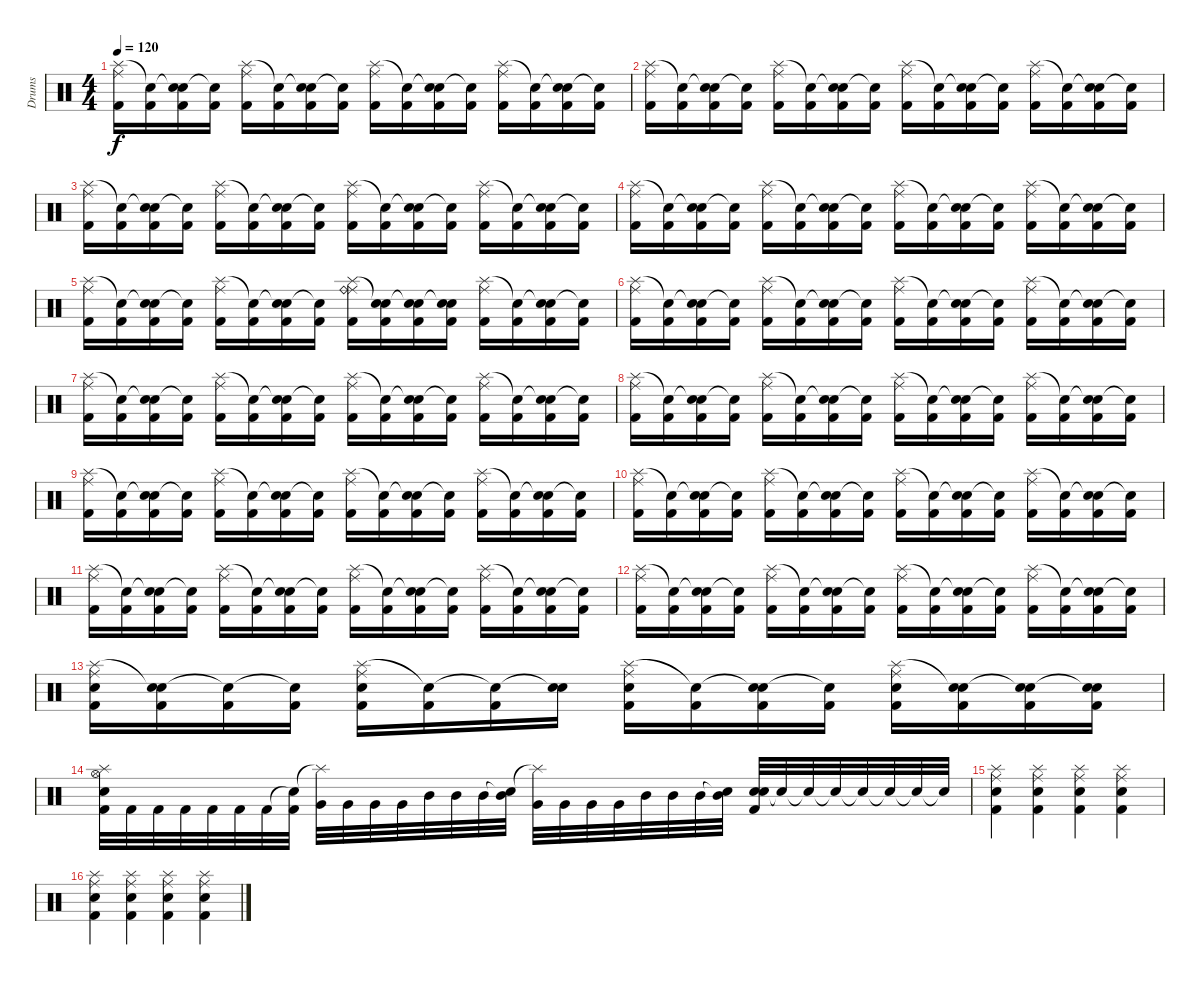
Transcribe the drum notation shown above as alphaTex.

\track ("Drums" "Drums") {instrument percussion}
\staff {score}
\articulation defaults
\ts (4 4)
\tempo 120
\clef neutral
\ks c
("Splash (hit)" "Ride (middle)" "Kick (hit) 2").16{dy f} ("Snare (hit)"{t} "Kick (hit) 2").16 ("Snare (hit)"{t} "Electric Snare (hit)" "Kick (hit) 2").16 ("Snare (hit)"{t} "Kick (hit) 2").16 ("Splash (hit)" "Ride (middle)" "Kick (hit) 2").16 ("Snare (hit)"{t} "Kick (hit) 2").16 ("Snare (hit)"{t} "Electric Snare (hit)" "Kick (hit) 2").16 ("Snare (hit)"{t} "Kick (hit) 2").16 ("Splash (hit)" "Ride (middle)" "Kick (hit) 2").16 ("Snare (hit)"{t} "Kick (hit) 2").16 ("Snare (hit)"{t} "Electric Snare (hit)" "Kick (hit) 2").16 ("Snare (hit)"{t} "Kick (hit) 2").16 ("Splash (hit)" "Ride (middle)" "Kick (hit) 2").16 ("Snare (hit)"{t} "Kick (hit) 2").16 ("Snare (hit)"{t} "Electric Snare (hit)" "Kick (hit) 2").16 ("Snare (hit)"{t} "Kick (hit) 2").16 |
("Splash (hit)" "Ride (middle)" "Kick (hit) 2").16 ("Snare (hit)"{t} "Kick (hit) 2").16 ("Snare (hit)"{t} "Electric Snare (hit)" "Kick (hit) 2").16 ("Snare (hit)"{t} "Kick (hit) 2").16 ("Splash (hit)" "Ride (middle)" "Kick (hit) 2").16 ("Snare (hit)"{t} "Kick (hit) 2").16 ("Snare (hit)"{t} "Electric Snare (hit)" "Kick (hit) 2").16 ("Snare (hit)"{t} "Kick (hit) 2").16 ("Splash (hit)" "Ride (middle)" "Kick (hit) 2").16 ("Snare (hit)"{t} "Kick (hit) 2").16 ("Snare (hit)"{t} "Electric Snare (hit)" "Kick (hit) 2").16 ("Snare (hit)"{t} "Kick (hit) 2").16 ("Splash (hit)" "Ride (middle)" "Kick (hit) 2").16 ("Snare (hit)"{t} "Kick (hit) 2").16 ("Snare (hit)"{t} "Electric Snare (hit)" "Kick (hit) 2").16 ("Snare (hit)"{t} "Kick (hit) 2").16 |
("Splash (hit)" "Ride (middle)" "Kick (hit) 2").16 ("Snare (hit)"{t} "Kick (hit) 2").16 ("Snare (hit)"{t} "Electric Snare (hit)" "Kick (hit) 2").16 ("Snare (hit)"{t} "Kick (hit) 2").16 ("Splash (hit)" "Ride (middle)" "Kick (hit) 2").16 ("Snare (hit)"{t} "Kick (hit) 2").16 ("Snare (hit)"{t} "Electric Snare (hit)" "Kick (hit) 2").16 ("Snare (hit)"{t} "Kick (hit) 2").16 ("Splash (hit)" "Ride (middle)" "Kick (hit) 2").16 ("Snare (hit)"{t} "Kick (hit) 2").16 ("Snare (hit)"{t} "Electric Snare (hit)" "Kick (hit) 2").16 ("Snare (hit)"{t} "Kick (hit) 2").16 ("Splash (hit)" "Ride (middle)" "Kick (hit) 2").16 ("Snare (hit)"{t} "Kick (hit) 2").16 ("Snare (hit)"{t} "Electric Snare (hit)" "Kick (hit) 2").16 ("Snare (hit)"{t} "Kick (hit) 2").16 |
("Splash (hit)" "Ride (middle)" "Kick (hit) 2").16 ("Snare (hit)"{t} "Kick (hit) 2").16 ("Snare (hit)"{t} "Electric Snare (hit)" "Kick (hit) 2").16 ("Snare (hit)"{t} "Kick (hit) 2").16 ("Splash (hit)" "Ride (middle)" "Kick (hit) 2").16 ("Snare (hit)"{t} "Kick (hit) 2").16 ("Snare (hit)"{t} "Electric Snare (hit)" "Kick (hit) 2").16 ("Snare (hit)"{t} "Kick (hit) 2").16 ("Splash (hit)" "Ride (middle)" "Kick (hit) 2").16 ("Snare (hit)"{t} "Kick (hit) 2").16 ("Snare (hit)"{t} "Electric Snare (hit)" "Kick (hit) 2").16 ("Snare (hit)"{t} "Kick (hit) 2").16 ("Splash (hit)" "Ride (middle)" "Kick (hit) 2").16 ("Snare (hit)"{t} "Kick (hit) 2").16 ("Snare (hit)"{t} "Electric Snare (hit)" "Kick (hit) 2").16 ("Snare (hit)"{t} "Kick (hit) 2").16 |
("Splash (hit)" "Ride (middle)" "Kick (hit) 2").16 ("Snare (hit)"{t} "Kick (hit) 2").16 ("Snare (hit)"{t} "Electric Snare (hit)" "Kick (hit) 2").16 ("Snare (hit)"{t} "Kick (hit) 2").16 ("Splash (hit)" "Ride (middle)" "Kick (hit) 2").16 ("Snare (hit)"{t} "Kick (hit) 2").16 ("Snare (hit)"{t} "Electric Snare (hit)" "Kick (hit) 2").16 ("Snare (hit)"{t} "Kick (hit) 2").16 ("Splash (hit)" "Ride (middle)" "Kick (hit) 2" "Ride (bell)").16 ("Snare (hit)"{t} "Electric Snare (hit)" "Kick (hit) 2").16 ("Snare (hit)"{t} "Electric Snare (hit)" "Kick (hit) 2").16 ("Snare (hit)"{t} "Electric Snare (hit)" "Kick (hit) 2").16 ("Splash (hit)" "Ride (middle)" "Kick (hit) 2").16 ("Snare (hit)"{t} "Kick (hit) 2").16 ("Snare (hit)"{t} "Electric Snare (hit)" "Kick (hit) 2").16 ("Snare (hit)"{t} "Kick (hit) 2").16 |
("Splash (hit)" "Ride (middle)" "Kick (hit) 2").16 ("Snare (hit)"{t} "Kick (hit) 2").16 ("Snare (hit)"{t} "Electric Snare (hit)" "Kick (hit) 2").16 ("Snare (hit)"{t} "Kick (hit) 2").16 ("Splash (hit)" "Ride (middle)" "Kick (hit) 2").16 ("Snare (hit)"{t} "Kick (hit) 2").16 ("Snare (hit)"{t} "Electric Snare (hit)" "Kick (hit) 2").16 ("Snare (hit)"{t} "Kick (hit) 2").16 ("Splash (hit)" "Ride (middle)" "Kick (hit) 2").16 ("Snare (hit)"{t} "Kick (hit) 2").16 ("Snare (hit)"{t} "Electric Snare (hit)" "Kick (hit) 2").16 ("Snare (hit)"{t} "Kick (hit) 2").16 ("Splash (hit)" "Ride (middle)" "Kick (hit) 2").16 ("Snare (hit)"{t} "Kick (hit) 2").16 ("Snare (hit)"{t} "Electric Snare (hit)" "Kick (hit) 2").16 ("Snare (hit)"{t} "Kick (hit) 2").16 |
("Splash (hit)" "Ride (middle)" "Kick (hit) 2").16 ("Snare (hit)"{t} "Kick (hit) 2").16 ("Snare (hit)"{t} "Electric Snare (hit)" "Kick (hit) 2").16 ("Snare (hit)"{t} "Kick (hit) 2").16 ("Splash (hit)" "Ride (middle)" "Kick (hit) 2").16 ("Snare (hit)"{t} "Kick (hit) 2").16 ("Snare (hit)"{t} "Electric Snare (hit)" "Kick (hit) 2").16 ("Snare (hit)"{t} "Kick (hit) 2").16 ("Splash (hit)" "Ride (middle)" "Kick (hit) 2").16 ("Snare (hit)"{t} "Kick (hit) 2").16 ("Snare (hit)"{t} "Electric Snare (hit)" "Kick (hit) 2").16 ("Snare (hit)"{t} "Kick (hit) 2").16 ("Splash (hit)" "Ride (middle)" "Kick (hit) 2").16 ("Snare (hit)"{t} "Kick (hit) 2").16 ("Snare (hit)"{t} "Electric Snare (hit)" "Kick (hit) 2").16 ("Snare (hit)"{t} "Kick (hit) 2").16 |
("Splash (hit)" "Ride (middle)" "Kick (hit) 2").16 ("Snare (hit)"{t} "Kick (hit) 2").16 ("Snare (hit)"{t} "Electric Snare (hit)" "Kick (hit) 2").16 ("Snare (hit)"{t} "Kick (hit) 2").16 ("Splash (hit)" "Ride (middle)" "Kick (hit) 2").16 ("Snare (hit)"{t} "Kick (hit) 2").16 ("Snare (hit)"{t} "Electric Snare (hit)" "Kick (hit) 2").16 ("Snare (hit)"{t} "Kick (hit) 2").16 ("Splash (hit)" "Ride (middle)" "Kick (hit) 2").16 ("Snare (hit)"{t} "Kick (hit) 2").16 ("Snare (hit)"{t} "Electric Snare (hit)" "Kick (hit) 2").16 ("Snare (hit)"{t} "Kick (hit) 2").16 ("Splash (hit)" "Ride (middle)" "Kick (hit) 2").16 ("Snare (hit)"{t} "Kick (hit) 2").16 ("Snare (hit)"{t} "Electric Snare (hit)" "Kick (hit) 2").16 ("Snare (hit)"{t} "Kick (hit) 2").16 |
("Splash (hit)" "Ride (middle)" "Kick (hit) 2").16 ("Snare (hit)"{t} "Kick (hit) 2").16 ("Snare (hit)"{t} "Electric Snare (hit)" "Kick (hit) 2").16 ("Snare (hit)"{t} "Kick (hit) 2").16 ("Splash (hit)" "Ride (middle)" "Kick (hit) 2").16 ("Snare (hit)"{t} "Kick (hit) 2").16 ("Snare (hit)"{t} "Electric Snare (hit)" "Kick (hit) 2").16 ("Snare (hit)"{t} "Kick (hit) 2").16 ("Splash (hit)" "Ride (middle)" "Kick (hit) 2").16 ("Snare (hit)"{t} "Kick (hit) 2").16 ("Snare (hit)"{t} "Electric Snare (hit)" "Kick (hit) 2").16 ("Snare (hit)"{t} "Kick (hit) 2").16 ("Splash (hit)" "Ride (middle)" "Kick (hit) 2").16 ("Snare (hit)"{t} "Kick (hit) 2").16 ("Snare (hit)"{t} "Electric Snare (hit)" "Kick (hit) 2").16 ("Snare (hit)"{t} "Kick (hit) 2").16 |
("Splash (hit)" "Ride (middle)" "Kick (hit) 2").16 ("Snare (hit)"{t} "Kick (hit) 2").16 ("Snare (hit)"{t} "Electric Snare (hit)" "Kick (hit) 2").16 ("Snare (hit)"{t} "Kick (hit) 2").16 ("Splash (hit)" "Ride (middle)" "Kick (hit) 2").16 ("Snare (hit)"{t} "Kick (hit) 2").16 ("Snare (hit)"{t} "Electric Snare (hit)" "Kick (hit) 2").16 ("Snare (hit)"{t} "Kick (hit) 2").16 ("Splash (hit)" "Ride (middle)" "Kick (hit) 2").16 ("Snare (hit)"{t} "Kick (hit) 2").16 ("Snare (hit)"{t} "Electric Snare (hit)" "Kick (hit) 2").16 ("Snare (hit)"{t} "Kick (hit) 2").16 ("Splash (hit)" "Ride (middle)" "Kick (hit) 2").16 ("Snare (hit)"{t} "Kick (hit) 2").16 ("Snare (hit)"{t} "Electric Snare (hit)" "Kick (hit) 2").16 ("Snare (hit)"{t} "Kick (hit) 2").16 |
("Splash (hit)" "Ride (middle)" "Kick (hit) 2").16 ("Snare (hit)"{t} "Kick (hit) 2").16 ("Snare (hit)"{t} "Electric Snare (hit)" "Kick (hit) 2").16 ("Snare (hit)"{t} "Kick (hit) 2").16 ("Splash (hit)" "Ride (middle)" "Kick (hit) 2").16 ("Snare (hit)"{t} "Kick (hit) 2").16 ("Snare (hit)"{t} "Electric Snare (hit)" "Kick (hit) 2").16 ("Snare (hit)"{t} "Kick (hit) 2").16 ("Splash (hit)" "Ride (middle)" "Kick (hit) 2").16 ("Snare (hit)"{t} "Kick (hit) 2").16 ("Snare (hit)"{t} "Electric Snare (hit)" "Kick (hit) 2").16 ("Snare (hit)"{t} "Kick (hit) 2").16 ("Splash (hit)" "Ride (middle)" "Kick (hit) 2").16 ("Snare (hit)"{t} "Kick (hit) 2").16 ("Snare (hit)"{t} "Electric Snare (hit)" "Kick (hit) 2").16 ("Snare (hit)"{t} "Kick (hit) 2").16 |
("Splash (hit)" "Ride (middle)" "Kick (hit) 2").16 ("Snare (hit)"{t} "Kick (hit) 2").16 ("Snare (hit)"{t} "Electric Snare (hit)" "Kick (hit) 2").16 ("Snare (hit)"{t} "Kick (hit) 2").16 ("Splash (hit)" "Ride (middle)" "Kick (hit) 2").16 ("Snare (hit)"{t} "Kick (hit) 2").16 ("Snare (hit)"{t} "Electric Snare (hit)" "Kick (hit) 2").16 ("Snare (hit)"{t} "Kick (hit) 2").16 ("Splash (hit)" "Ride (middle)" "Kick (hit) 2").16 ("Snare (hit)"{t} "Kick (hit) 2").16 ("Snare (hit)"{t} "Electric Snare (hit)" "Kick (hit) 2").16 ("Snare (hit)"{t} "Kick (hit) 2").16 ("Splash (hit)" "Ride (middle)" "Kick (hit) 2").16 ("Snare (hit)"{t} "Kick (hit) 2").16 ("Snare (hit)"{t} "Electric Snare (hit)" "Kick (hit) 2").16 ("Snare (hit)"{t} "Kick (hit) 2").16 |
("Splash (hit)" "Ride (middle)" "Kick (hit) 2" "Electric Snare (hit)").16 ("Snare (hit)"{t} "Electric Snare (hit)" "Kick (hit) 2").16 ("Snare (hit)"{t} "Kick (hit) 2").16 ("Snare (hit)"{t} "Kick (hit) 2").16 ("Splash (hit)" "Electric Snare (hit)" "Kick (hit) 2" "Ride (middle)").16 ("Snare (hit)"{t} "Kick (hit) 2").16 ("Snare (hit)"{t} "Kick (hit) 2").16 ("Snare (hit)"{t} "Electric Snare (hit)").16 ("Splash (hit)" "Ride (middle)" "Kick (hit) 2" "Electric Snare (hit)").16 ("Snare (hit)"{t} "Kick (hit) 2").16 ("Snare (hit)"{t} "Electric Snare (hit)" "Kick (hit) 2").16 ("Snare (hit)"{t} "Kick (hit) 2").16 ("Splash (hit)" "Electric Snare (hit)" "Kick (hit) 2" "Ride (middle)").16 ("Snare (hit)"{t} "Electric Snare (hit)" "Kick (hit) 2").16 ("Snare (hit)"{t} "Electric Snare (hit)" "Kick (hit) 2").16 ("Snare (hit)"{t} "Electric Snare (hit)" "Kick (hit) 2").16 |
("Splash (hit)" "Hi-Hat (open)" "Kick (hit) 2" "Electric Snare (hit)").32 "Kick (hit) 2".32 "Kick (hit) 2".32 "Kick (hit) 2".32 "Kick (hit) 2".32 "Kick (hit) 2".32 "Kick (hit) 2".32 ("Snare (hit)"{t} "Kick (hit) 2").32 ("Splash (hit)"{t} "Very Low Tom (hit)").32 "Very Low Tom (hit)".32 "Very Low Tom (hit)".32 "Very Low Tom (hit)".32 "Mid Tom (hit)".32 "Mid Tom (hit)".32 "Mid Tom (hit)".32 ("Snare (hit)"{t} "Mid Tom (hit)").32 ("Splash (hit)"{t} "Very Low Tom (hit)").32 "Very Low Tom (hit)".32 "Very Low Tom (hit)".32 "Very Low Tom (hit)".32 "Mid Tom (hit)".32 "Mid Tom (hit)".32 "Mid Tom (hit)".32 ("Snare (hit)"{t} "Mid Tom (hit)").32 ("Snare (hit) 2" "Electric Snare (hit)" "Kick (hit) 2").32 "Snare (hit)"{t}.32 "Snare (hit)"{t}.32 "Snare (hit)"{t}.32 "Snare (hit)"{t}.32 "Snare (hit)"{t}.32 "Snare (hit)"{t}.32 "Snare (hit)"{t}.32 |
("Ride (middle)" "Splash (hit)" "Kick (hit) 2" "Snare (hit) 2").4 ("Ride (middle)" "Splash (hit)" "Kick (hit) 2" "Snare (hit) 2").4 ("Ride (middle)" "Splash (hit)" "Kick (hit) 2" "Snare (hit) 2").4 ("Ride (middle)" "Splash (hit)" "Kick (hit) 2" "Snare (hit) 2").4 |
("Ride (middle)" "Splash (hit)" "Kick (hit) 2" "Snare (hit) 2").4 ("Ride (middle)" "Splash (hit)" "Kick (hit) 2" "Snare (hit) 2").4 ("Ride (middle)" "Splash (hit)" "Kick (hit) 2" "Snare (hit) 2").4 ("Ride (middle)" "Splash (hit)" "Kick (hit) 2" "Snare (hit) 2").4
